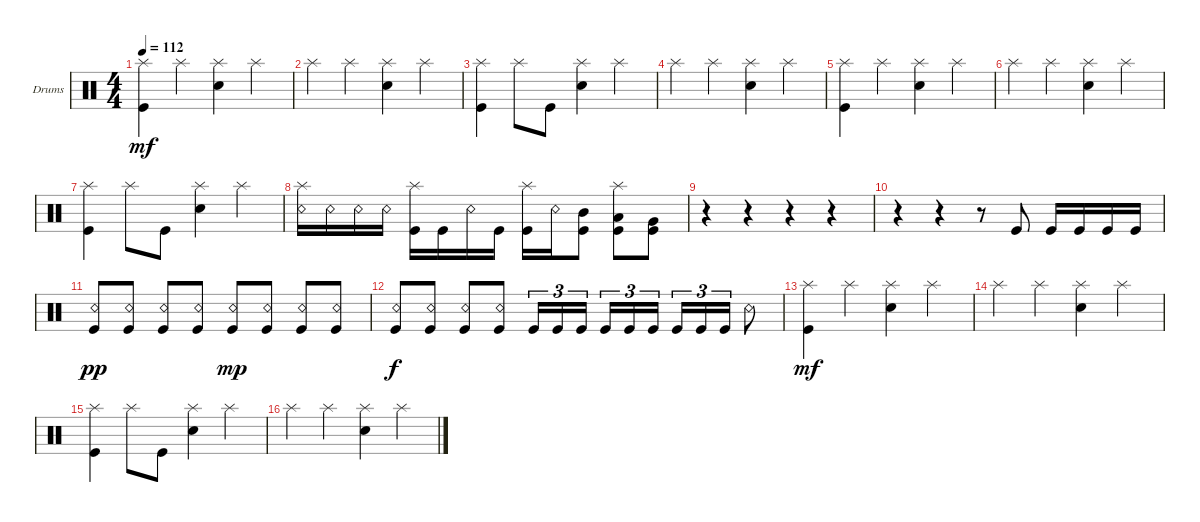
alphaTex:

\defaultSystemsLayout 4
\bracketExtendMode groupsimilarinstruments
\firstSystemTrackNameOrientation horizontal
\otherSystemsTrackNameOrientation horizontal
\track ("Drumkit" "Drums") {instrument percussion}
\staff {score}
\articulation defaults
\ts (4 4)
\tempo 112
\clef neutral
\ks c
("Splash (hit)" "Kick (hit)").4{dy mf} "Splash (hit)".4 ("Splash (hit)" "Snare (hit) 2").4 "Splash (hit)".4 |
"Splash (hit)".4 "Splash (hit)".4 ("Splash (hit)" "Snare (hit) 2").4 "Splash (hit)".4 |
("Splash (hit)" "Kick (hit)").4 "Splash (hit)".8 "Kick (hit)".8 ("Splash (hit)" "Snare (hit) 2").4 "Splash (hit)".4 |
"Splash (hit)".4 "Splash (hit)".4 ("Splash (hit)" "Snare (hit) 2").4 "Splash (hit)".4 |
("Splash (hit)" "Kick (hit)").4 "Splash (hit)".4 ("Splash (hit)" "Snare (hit) 2").4 "Splash (hit)".4 |
"Splash (hit)".4 "Splash (hit)".4 ("Splash (hit)" "Snare (hit) 2").4 "Splash (hit)".4 |
("Splash (hit)" "Kick (hit)").4 "Splash (hit)".8 "Kick (hit)".8 ("Splash (hit)" "Snare (hit) 2").4 "Splash (hit)".4 |
("Snare (rim shot)" "Splash (hit)").16 "Snare (rim shot)".16 "Snare (rim shot)".16 "Snare (rim shot)".16 ("Kick (hit)" "Splash (hit)").16 "Kick (hit)".16 "Snare (rim shot)".16 "Kick (hit)".16 ("Kick (hit)" "Splash (hit)").16 "Snare (rim shot)".16 ("Kick (hit)" "Mid Tom (hit)").8 ("Kick (hit)" "Low Tom (hit)" "Splash (hit)").8 ("Kick (hit)" "Very Low Tom (hit)").8 |
r.4 r.4 r.4 r.4 |
r.4 r.4 r.8 "Kick (hit)".8 "Kick (hit)".16 "Kick (hit)".16 "Kick (hit)".16 "Kick (hit)".16 |
("Kick (hit)" "Snare (rim shot)").8{dy pp} ("Kick (hit)" "Snare (rim shot)").8 ("Kick (hit)" "Snare (rim shot)").8 ("Kick (hit)" "Snare (rim shot)").8 ("Kick (hit)" "Snare (rim shot)").8{dy mp} ("Kick (hit)" "Snare (rim shot)").8 ("Kick (hit)" "Snare (rim shot)").8 ("Kick (hit)" "Snare (rim shot)").8 |
("Kick (hit)" "Snare (rim shot)").8{dy f} ("Kick (hit)" "Snare (rim shot)").8 ("Kick (hit)" "Snare (rim shot)").8 ("Kick (hit)" "Snare (rim shot)").8 "Kick (hit)".16{tu (3 2)} "Kick (hit)".16{tu (3 2)} "Kick (hit)".16{tu (3 2)} "Kick (hit)".16{tu (3 2)} "Kick (hit)".16{tu (3 2)} "Kick (hit)".16{tu (3 2)} "Kick (hit)".16{tu (3 2)} "Kick (hit)".16{tu (3 2)} "Kick (hit)".16{tu (3 2)} "Snare (rim shot)".8 |
("Splash (hit)" "Kick (hit)").4{dy mf} "Splash (hit)".4 ("Splash (hit)" "Snare (hit) 2").4 "Splash (hit)".4 |
"Splash (hit)".4 "Splash (hit)".4 ("Splash (hit)" "Snare (hit) 2").4 "Splash (hit)".4 |
("Splash (hit)" "Kick (hit)").4 "Splash (hit)".8 "Kick (hit)".8 ("Splash (hit)" "Snare (hit) 2").4 "Splash (hit)".4 |
"Splash (hit)".4 "Splash (hit)".4 ("Splash (hit)" "Snare (hit) 2").4 "Splash (hit)".4
